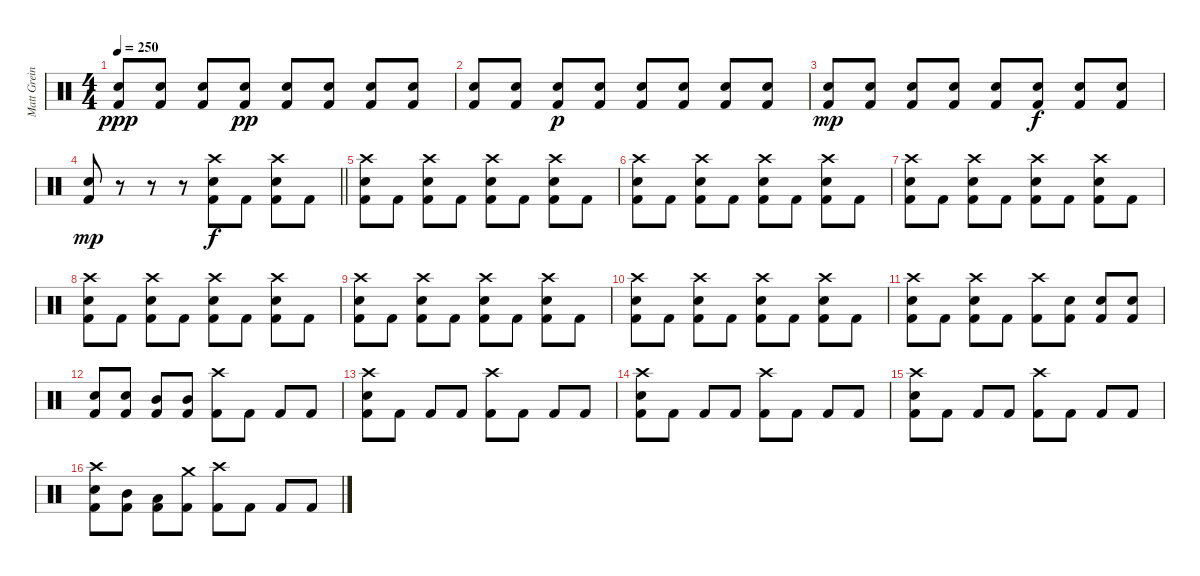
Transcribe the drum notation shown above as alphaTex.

\track ("Matt Greiner (Drums)" "Matt Grein") {instrument percussion}
\staff {score}
\articulation defaults
\ts (4 4)
\tempo 250
\clef neutral
\ks c
("Electric Snare (hit)" "Kick (hit) 2").8{dy ppp} ("Electric Snare (hit)" "Kick (hit) 2").8 ("Electric Snare (hit)" "Kick (hit) 2").8 ("Electric Snare (hit)" "Kick (hit) 2").8{dy pp} ("Electric Snare (hit)" "Kick (hit) 2").8 ("Electric Snare (hit)" "Kick (hit) 2").8 ("Electric Snare (hit)" "Kick (hit) 2").8 ("Electric Snare (hit)" "Kick (hit) 2").8 |
("Electric Snare (hit)" "Kick (hit) 2").8 ("Electric Snare (hit)" "Kick (hit) 2").8 ("Electric Snare (hit)" "Kick (hit) 2").8{dy p} ("Electric Snare (hit)" "Kick (hit) 2").8 ("Electric Snare (hit)" "Kick (hit) 2").8 ("Electric Snare (hit)" "Kick (hit) 2").8 ("Electric Snare (hit)" "Kick (hit) 2").8 ("Electric Snare (hit)" "Kick (hit) 2").8 |
("Electric Snare (hit)" "Kick (hit) 2").8{dy mp} ("Electric Snare (hit)" "Kick (hit) 2").8 ("Electric Snare (hit)" "Kick (hit) 2").8 ("Electric Snare (hit)" "Kick (hit) 2").8 ("Electric Snare (hit)" "Kick (hit) 2").8 ("Electric Snare (hit)" "Kick (hit) 2").8{dy f} ("Electric Snare (hit)" "Kick (hit) 2").8 ("Electric Snare (hit)" "Kick (hit) 2").8 |
\barLineRight lightlight
("Electric Snare (hit)" "Kick (hit) 2").8{dy mp} r.8 r.8 r.8 ("Crash high (hit)" "Electric Snare (hit)" "Kick (hit) 2").8{dy f} "Kick (hit) 2".8 ("Crash high (hit)" "Electric Snare (hit)" "Kick (hit) 2").8 "Kick (hit) 2".8 |
("Crash high (hit)" "Electric Snare (hit)" "Kick (hit) 2").8 "Kick (hit) 2".8 ("Crash high (hit)" "Electric Snare (hit)" "Kick (hit) 2").8 "Kick (hit) 2".8 ("Crash high (hit)" "Electric Snare (hit)" "Kick (hit) 2").8 "Kick (hit) 2".8 ("Crash high (hit)" "Electric Snare (hit)" "Kick (hit) 2").8 "Kick (hit) 2".8 |
("Crash high (hit)" "Electric Snare (hit)" "Kick (hit) 2").8 "Kick (hit) 2".8 ("Crash high (hit)" "Electric Snare (hit)" "Kick (hit) 2").8 "Kick (hit) 2".8 ("Crash high (hit)" "Electric Snare (hit)" "Kick (hit) 2").8 "Kick (hit) 2".8 ("Crash high (hit)" "Electric Snare (hit)" "Kick (hit) 2").8 "Kick (hit) 2".8 |
("Crash high (hit)" "Electric Snare (hit)" "Kick (hit) 2").8 "Kick (hit) 2".8 ("Crash high (hit)" "Electric Snare (hit)" "Kick (hit) 2").8 "Kick (hit) 2".8 ("Crash high (hit)" "Electric Snare (hit)" "Kick (hit) 2").8 "Kick (hit) 2".8 ("Crash high (hit)" "Electric Snare (hit)" "Kick (hit) 2").8 "Kick (hit) 2".8 |
("Crash high (hit)" "Electric Snare (hit)" "Kick (hit) 2").8 "Kick (hit) 2".8 ("Crash high (hit)" "Electric Snare (hit)" "Kick (hit) 2").8 "Kick (hit) 2".8 ("Crash high (hit)" "Electric Snare (hit)" "Kick (hit) 2").8 "Kick (hit) 2".8 ("Crash high (hit)" "Electric Snare (hit)" "Kick (hit) 2").8 "Kick (hit) 2".8 |
("Crash high (hit)" "Electric Snare (hit)" "Kick (hit) 2").8 "Kick (hit) 2".8 ("Crash high (hit)" "Electric Snare (hit)" "Kick (hit) 2").8 "Kick (hit) 2".8 ("Crash high (hit)" "Electric Snare (hit)" "Kick (hit) 2").8 "Kick (hit) 2".8 ("Crash high (hit)" "Electric Snare (hit)" "Kick (hit) 2").8 "Kick (hit) 2".8 |
("Crash high (hit)" "Electric Snare (hit)" "Kick (hit) 2").8 "Kick (hit) 2".8 ("Crash high (hit)" "Electric Snare (hit)" "Kick (hit) 2").8 "Kick (hit) 2".8 ("Crash high (hit)" "Electric Snare (hit)" "Kick (hit) 2").8 "Kick (hit) 2".8 ("Crash high (hit)" "Electric Snare (hit)" "Kick (hit) 2").8 "Kick (hit) 2".8 |
("Crash high (hit)" "Electric Snare (hit)" "Kick (hit) 2").8 "Kick (hit) 2".8 ("Crash high (hit)" "Electric Snare (hit)" "Kick (hit) 2").8 "Kick (hit) 2".8 ("Crash high (hit)" "Kick (hit) 2").8 ("Electric Snare (hit)" "Kick (hit) 2").8 ("Electric Snare (hit)" "Kick (hit) 2").8 ("Electric Snare (hit)" "Kick (hit) 2").8 |
("Electric Snare (hit)" "Kick (hit) 2").8 ("Electric Snare (hit)" "Kick (hit) 2").8 ("Mid Tom (hit)" "Kick (hit) 2").8 ("Mid Tom (hit)" "Kick (hit) 2").8 ("Crash high (hit)" "Kick (hit) 2").8 "Kick (hit) 2".8 "Kick (hit) 2".8 "Kick (hit) 2".8 |
("Crash high (hit)" "Electric Snare (hit)" "Kick (hit) 2").8 "Kick (hit) 2".8 "Kick (hit) 2".8 "Kick (hit) 2".8 ("Crash high (hit)" "Kick (hit) 2").8 "Kick (hit) 2".8 "Kick (hit) 2".8 "Kick (hit) 2".8 |
("Crash high (hit)" "Electric Snare (hit)" "Kick (hit) 2").8 "Kick (hit) 2".8 "Kick (hit) 2".8 "Kick (hit) 2".8 ("Crash high (hit)" "Kick (hit) 2").8 "Kick (hit) 2".8 "Kick (hit) 2".8 "Kick (hit) 2".8 |
("Crash high (hit)" "Electric Snare (hit)" "Kick (hit) 2").8 "Kick (hit) 2".8 "Kick (hit) 2".8 "Kick (hit) 2".8 ("Crash high (hit)" "Kick (hit) 2").8 "Kick (hit) 2".8 "Kick (hit) 2".8 "Kick (hit) 2".8 |
("Crash high (hit)" "Electric Snare (hit)" "Kick (hit) 2").8 ("Mid Tom (hit)" "Kick (hit) 2").8 ("Low Tom (hit)" "Kick (hit) 2").8 ("Crash medium (hit)" "Kick (hit) 2").8 ("Crash high (hit)" "Kick (hit) 2").8 "Kick (hit) 2".8 "Kick (hit) 2".8 "Kick (hit) 2".8
